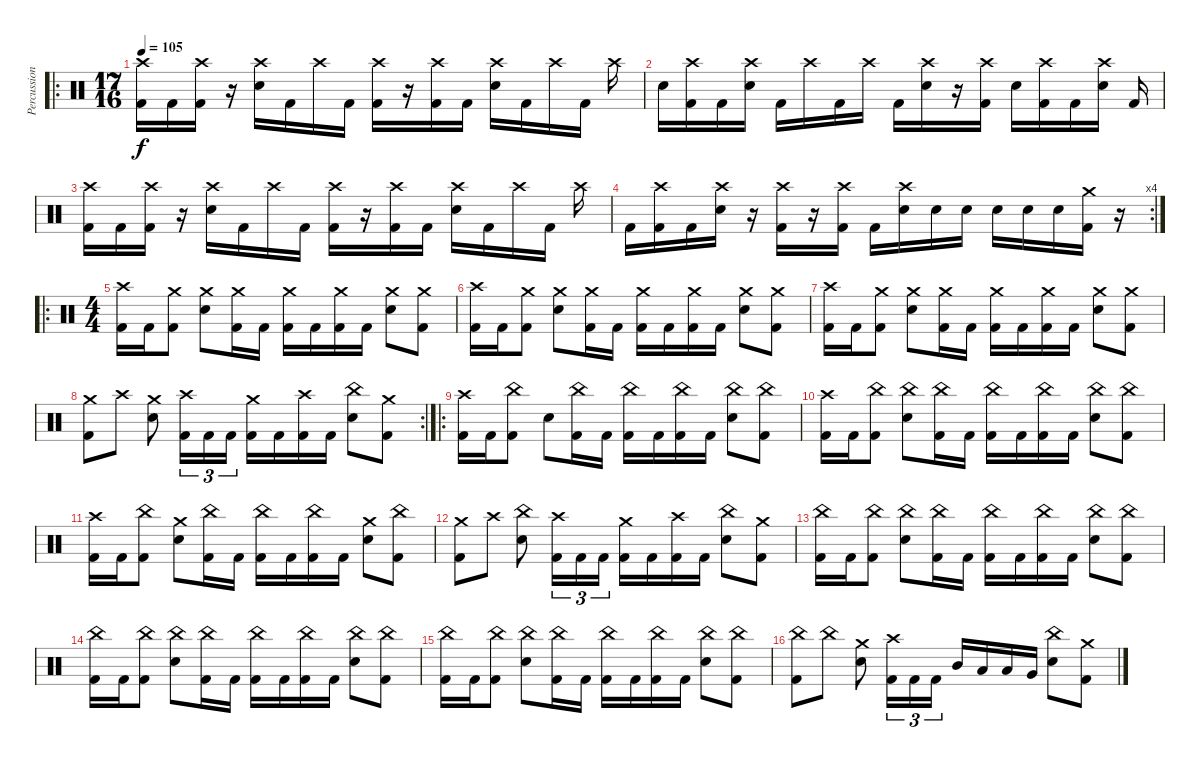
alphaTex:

\track ("Percussion" "Percussion") {instrument percussion}
\staff {score}
\articulation defaults
\ro
\ts (17 16)
\tempo 105
\clef neutral
\ks c
("Crash high (hit)" "Kick (hit) 2").16{dy f} "Kick (hit) 2".16 ("Crash high (hit)" "Kick (hit) 2").16 r.16 ("Crash high (hit)" "Snare (hit) 2").16 "Kick (hit) 2".16 "Crash high (hit)".16 "Kick (hit) 2".16 ("Crash high (hit)" "Kick (hit) 2").16 r.16 ("Crash high (hit)" "Kick (hit) 2").16 "Kick (hit) 2".16 ("Crash high (hit)" "Snare (hit) 2").16 "Kick (hit) 2".16 "Crash high (hit)".16 "Kick (hit) 2".16 "Crash high (hit)".16 |
"Snare (hit) 2".16 ("Crash high (hit)" "Kick (hit) 2").16 "Kick (hit) 2".16 ("Crash high (hit)" "Snare (hit) 2").16 "Kick (hit) 2".16 "Crash high (hit)".16 "Kick (hit) 2".16 "Crash high (hit)".16 "Kick (hit) 2".16 ("Crash high (hit)" "Snare (hit) 2").16 r.16 ("Crash high (hit)" "Kick (hit) 2").16 "Snare (hit) 2".16 ("Crash high (hit)" "Kick (hit) 2").16 "Kick (hit) 2".16 ("Crash high (hit)" "Snare (hit) 2").16 "Kick (hit) 2".16 |
("Crash high (hit)" "Kick (hit) 2").16 "Kick (hit) 2".16 ("Crash high (hit)" "Kick (hit) 2").16 r.16 ("Crash high (hit)" "Snare (hit) 2").16 "Kick (hit) 2".16 "Crash high (hit)".16 "Kick (hit) 2".16 ("Crash high (hit)" "Kick (hit) 2").16 r.16 ("Crash high (hit)" "Kick (hit) 2").16 "Kick (hit) 2".16 ("Crash high (hit)" "Snare (hit) 2").16 "Kick (hit) 2".16 "Crash high (hit)".16 "Kick (hit) 2".16 "Crash high (hit)".16 |
\rc 4 "Kick (hit) 2".16
("Crash high (hit)" "Kick (hit) 2").16 "Kick (hit) 2".16 ("Crash high (hit)" "Snare (hit) 2").16 r.16 ("Crash high (hit)" "Kick (hit) 2").16 r.16 ("Crash high (hit)" "Kick (hit) 2").16 "Kick (hit) 2".16 ("Crash high (hit)" "Snare (hit) 2").16 "Snare (hit) 2".16 "Snare (hit) 2".16 "Snare (hit) 2".16 "Snare (hit) 2".16 "Snare (hit) 2".16 ("Crash medium (hit)" "Kick (hit) 2").16 r.16 |
\ro
\ts (4 4)
("Crash high (hit)" "Kick (hit) 2").16 "Kick (hit) 2".16 ("Crash medium (hit)" "Kick (hit) 2").8 ("Crash medium (hit)" "Snare (hit) 2").8 ("Crash medium (hit)" "Kick (hit) 2").16 "Kick (hit) 2".16 ("Crash medium (hit)" "Kick (hit) 2").16 "Kick (hit) 2".16 ("Crash medium (hit)" "Kick (hit) 2").16 "Kick (hit) 2".16 ("Crash medium (hit)" "Snare (hit) 2").8 ("Crash medium (hit)" "Kick (hit) 2").8 |
("Crash high (hit)" "Kick (hit) 2").16 "Kick (hit) 2".16 ("Crash medium (hit)" "Kick (hit) 2").8 ("Crash medium (hit)" "Snare (hit) 2").8 ("Crash medium (hit)" "Kick (hit) 2").16 "Kick (hit) 2".16 ("Crash medium (hit)" "Kick (hit) 2").16 "Kick (hit) 2".16 ("Crash medium (hit)" "Kick (hit) 2").16 "Kick (hit) 2".16 ("Crash medium (hit)" "Snare (hit) 2").8 ("Crash medium (hit)" "Kick (hit) 2").8 |
("Crash high (hit)" "Kick (hit) 2").16 "Kick (hit) 2".16 ("Crash medium (hit)" "Kick (hit) 2").8 ("Crash medium (hit)" "Snare (hit) 2").8 ("Crash medium (hit)" "Kick (hit) 2").16 "Kick (hit) 2".16 ("Crash medium (hit)" "Kick (hit) 2").16 "Kick (hit) 2".16 ("Crash medium (hit)" "Kick (hit) 2").16 "Kick (hit) 2".16 ("Crash medium (hit)" "Snare (hit) 2").8 ("Crash medium (hit)" "Kick (hit) 2").8 |
\rc 2
("Crash medium (hit)" "Kick (hit) 2").8 "Crash high (hit)".8 ("Crash medium (hit)" "Snare (hit) 2").8 ("Crash high (hit)" "Kick (hit) 2").16{tu (3 2)} "Kick (hit) 2".16{tu (3 2)} "Kick (hit) 2".16{tu (3 2)} ("Crash medium (hit)" "Kick (hit) 2").16 "Kick (hit) 2".16 ("Crash high (hit)" "Kick (hit) 2").16 "Kick (hit) 2".16 ("China (hit)" "Snare (hit) 2").8 ("Crash medium (hit)" "Kick (hit) 2").8 |
\ro
("Crash high (hit)" "Kick (hit) 2").16 "Kick (hit) 2".16 ("China (hit)" "Kick (hit) 2").8 "Snare (hit) 2".8 ("China (hit)" "Kick (hit) 2").16 "Kick (hit) 2".16 ("China (hit)" "Kick (hit) 2").16 "Kick (hit) 2".16 ("China (hit)" "Kick (hit) 2").16 "Kick (hit) 2".16 ("China (hit)" "Snare (hit) 2").8 ("China (hit)" "Kick (hit) 2").8 |
("Crash high (hit)" "Kick (hit) 2").16 "Kick (hit) 2".16 ("China (hit)" "Kick (hit) 2").8 ("China (hit)" "Snare (hit) 2").8 ("China (hit)" "Kick (hit) 2").16 "Kick (hit) 2".16 ("China (hit)" "Kick (hit) 2").16 "Kick (hit) 2".16 ("China (hit)" "Kick (hit) 2").16 "Kick (hit) 2".16 ("China (hit)" "Snare (hit) 2").8 ("China (hit)" "Kick (hit) 2").8 |
("Crash high (hit)" "Kick (hit) 2").16 "Kick (hit) 2".16 ("China (hit)" "Kick (hit) 2").8 ("Crash medium (hit)" "Snare (hit) 2").8 ("China (hit)" "Kick (hit) 2").16 "Kick (hit) 2".16 ("China (hit)" "Kick (hit) 2").16 "Kick (hit) 2".16 ("China (hit)" "Kick (hit) 2").16 "Kick (hit) 2".16 ("Crash medium (hit)" "Snare (hit) 2").8 ("China (hit)" "Kick (hit) 2").8 |
("Crash medium (hit)" "Kick (hit) 2").8 "Crash high (hit)".8 ("China (hit)" "Snare (hit) 2").8 ("Crash high (hit)" "Kick (hit) 2").16{tu (3 2)} "Kick (hit) 2".16{tu (3 2)} "Kick (hit) 2".16{tu (3 2)} ("Crash medium (hit)" "Kick (hit) 2").16 "Kick (hit) 2".16 ("Crash high (hit)" "Kick (hit) 2").16 "Kick (hit) 2".16 ("China (hit)" "Snare (hit) 2").8 ("Crash medium (hit)" "Kick (hit) 2").8 |
("China (hit)" "Kick (hit) 2").16 "Kick (hit) 2".16 ("China (hit)" "Kick (hit) 2").8 ("China (hit)" "Snare (hit) 2").8 ("China (hit)" "Kick (hit) 2").16 "Kick (hit) 2".16 ("China (hit)" "Kick (hit) 2").16 "Kick (hit) 2".16 ("China (hit)" "Kick (hit) 2").16 "Kick (hit) 2".16 ("China (hit)" "Snare (hit) 2").8 ("China (hit)" "Kick (hit) 2").8 |
("China (hit)" "Kick (hit) 2").16 "Kick (hit) 2".16 ("China (hit)" "Kick (hit) 2").8 ("China (hit)" "Snare (hit) 2").8 ("China (hit)" "Kick (hit) 2").16 "Kick (hit) 2".16 ("China (hit)" "Kick (hit) 2").16 "Kick (hit) 2".16 ("China (hit)" "Kick (hit) 2").16 "Kick (hit) 2".16 ("China (hit)" "Snare (hit) 2").8 ("China (hit)" "Kick (hit) 2").8 |
("China (hit)" "Kick (hit) 2").16 "Kick (hit) 2".16 ("China (hit)" "Kick (hit) 2").8 ("China (hit)" "Snare (hit) 2").8 ("China (hit)" "Kick (hit) 2").16 "Kick (hit) 2".16 ("China (hit)" "Kick (hit) 2").16 "Kick (hit) 2".16 ("China (hit)" "Kick (hit) 2").16 "Kick (hit) 2".16 ("China (hit)" "Snare (hit) 2").8 ("China (hit)" "Kick (hit) 2").8 |
("China (hit)" "Kick (hit) 2").8 "China (hit)".8 ("Crash medium (hit)" "Snare (hit) 2").8 ("Crash high (hit)" "Kick (hit) 2").16{tu (3 2)} "Kick (hit) 2".16{tu (3 2)} "Kick (hit) 2".16{tu (3 2)} "Mid Tom (hit)".16 "Low Tom (hit)".16 "Low Tom (hit)".16 "Very Low Tom (hit)".16 ("China (hit)" "Snare (hit) 2").8 ("Crash medium (hit)" "Kick (hit) 2").8
